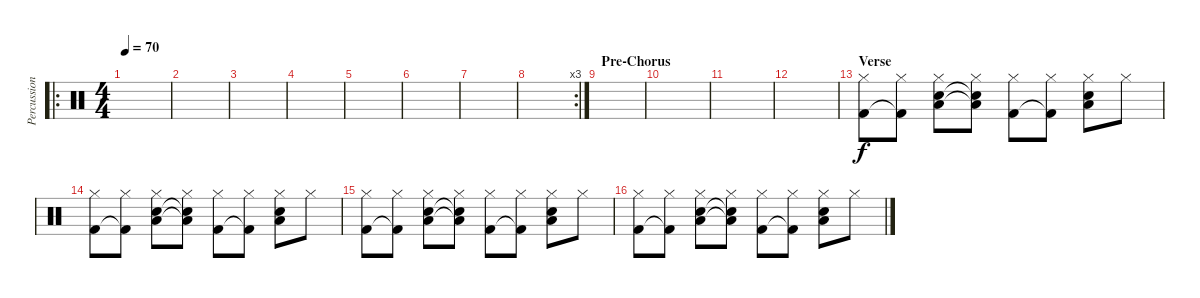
\track ("Percussions" "Percussion") {instrument percussion}
\staff {score}
\articulation defaults
\ro
\ts (4 4)
\tempo 70
\clef neutral
\ks c
|
|
|
|
|
|
|
\rc 3
|
\section ("" "Pre-Chorus")
|
|
|
|
\section ("" "Verse")
("Hi-Hat (closed)" "Kick (hit) 2").8 ("Hi-Hat (closed)" "Kick (hit) 2"{t}).8 ("Hi-Hat (closed)" "Electric Snare (hit)" "Low Tom (hit)").8 ("Hi-Hat (closed)" "Electric Snare (hit)"{t} "Low Tom (hit)"{t}).8 ("Hi-Hat (closed)" "Kick (hit) 2").8 ("Hi-Hat (closed)" "Kick (hit) 2"{t}).8 ("Hi-Hat (closed)" "Electric Snare (hit)" "Low Tom (hit)").8 "Hi-Hat (closed)".8 |
("Hi-Hat (closed)" "Kick (hit) 2").8 ("Hi-Hat (closed)" "Kick (hit) 2"{t}).8 ("Hi-Hat (closed)" "Electric Snare (hit)" "Low Tom (hit)").8 ("Hi-Hat (closed)" "Electric Snare (hit)"{t} "Low Tom (hit)"{t}).8 ("Hi-Hat (closed)" "Kick (hit) 2").8 ("Hi-Hat (closed)" "Kick (hit) 2"{t}).8 ("Hi-Hat (closed)" "Electric Snare (hit)" "Low Tom (hit)").8 "Hi-Hat (closed)".8 |
("Hi-Hat (closed)" "Kick (hit) 2").8 ("Hi-Hat (closed)" "Kick (hit) 2"{t}).8 ("Hi-Hat (closed)" "Electric Snare (hit)" "Low Tom (hit)").8 ("Hi-Hat (closed)" "Electric Snare (hit)"{t} "Low Tom (hit)"{t}).8 ("Hi-Hat (closed)" "Kick (hit) 2").8 ("Hi-Hat (closed)" "Kick (hit) 2"{t}).8 ("Hi-Hat (closed)" "Electric Snare (hit)" "Low Tom (hit)").8 "Hi-Hat (closed)".8 |
("Hi-Hat (closed)" "Kick (hit) 2").8 ("Hi-Hat (closed)" "Kick (hit) 2"{t}).8 ("Hi-Hat (closed)" "Electric Snare (hit)" "Low Tom (hit)").8 ("Hi-Hat (closed)" "Electric Snare (hit)"{t} "Low Tom (hit)"{t}).8 ("Hi-Hat (closed)" "Kick (hit) 2").8 ("Hi-Hat (closed)" "Kick (hit) 2"{t}).8 ("Hi-Hat (closed)" "Electric Snare (hit)" "Low Tom (hit)").8 "Hi-Hat (closed)".8
